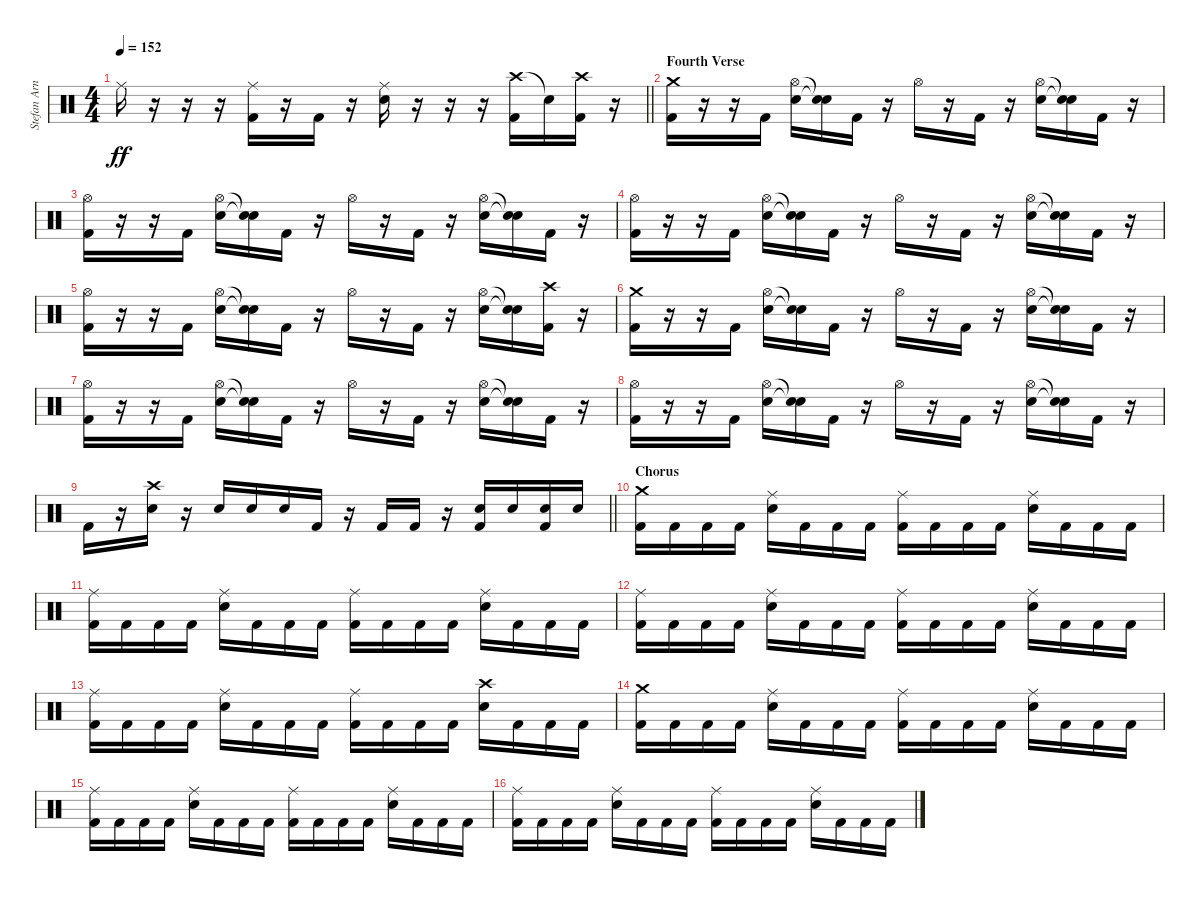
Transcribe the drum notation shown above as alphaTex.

\track ("Stefan Arnold" "Stefan Arn") {instrument percussion}
\staff {score}
\articulation defaults
\ts (4 4)
\tempo 152
\clef neutral
\barLineRight lightlight
\ks c "Ride (middle)".16{dy ff}
r.16 r.16 r.16 ("Ride (middle)" "Kick (hit) 2").16 r.16 "Kick (hit) 2".16 r.16 ("Ride (middle)" "Electric Snare (hit)").16 r.16 r.16 r.16 ("Crash high (hit)" "Kick (hit) 2").16 "Snare (hit)"{t}.16 ("Crash high (hit)" "Kick (hit) 2").16 r.16 |
\section ("" "Fourth Verse")
("Crash medium (hit)" "Kick (hit) 2").16 r.16 r.16 "Kick (hit) 2".16 ("Hi-Hat (open)" "Electric Snare (hit)").16 ("Snare (hit)"{t} "Electric Snare (hit)"{t}).16 "Kick (hit) 2".16 r.16 "Hi-Hat (open)".16 r.16 "Kick (hit) 2".16 r.16 ("Hi-Hat (open)" "Electric Snare (hit)").16 ("Snare (hit)"{t} "Electric Snare (hit)"{t}).16 "Kick (hit) 2".16 r.16 |
("Hi-Hat (open)" "Kick (hit) 2").16 r.16 r.16 "Kick (hit) 2".16 ("Hi-Hat (open)" "Electric Snare (hit)").16 ("Snare (hit)"{t} "Electric Snare (hit)"{t}).16 "Kick (hit) 2".16 r.16 "Hi-Hat (open)".16 r.16 "Kick (hit) 2".16 r.16 ("Hi-Hat (open)" "Electric Snare (hit)").16 ("Snare (hit)"{t} "Electric Snare (hit)"{t}).16 "Kick (hit) 2".16 r.16 |
("Hi-Hat (open)" "Kick (hit) 2").16 r.16 r.16 "Kick (hit) 2".16 ("Hi-Hat (open)" "Electric Snare (hit)").16 ("Snare (hit)"{t} "Electric Snare (hit)"{t}).16 "Kick (hit) 2".16 r.16 "Hi-Hat (open)".16 r.16 "Kick (hit) 2".16 r.16 ("Hi-Hat (open)" "Electric Snare (hit)").16 ("Snare (hit)"{t} "Electric Snare (hit)"{t}).16 "Kick (hit) 2".16 r.16 |
("Hi-Hat (open)" "Kick (hit) 2").16 r.16 r.16 "Kick (hit) 2".16 ("Hi-Hat (open)" "Electric Snare (hit)").16 ("Snare (hit)"{t} "Electric Snare (hit)"{t}).16 "Kick (hit) 2".16 r.16 "Hi-Hat (open)".16 r.16 "Kick (hit) 2".16 r.16 ("Hi-Hat (open)" "Electric Snare (hit)").16 ("Snare (hit)"{t} "Electric Snare (hit)"{t}).16 ("Crash high (hit)" "Kick (hit) 2").16 r.16 |
("Crash medium (hit)" "Kick (hit) 2").16 r.16 r.16 "Kick (hit) 2".16 ("Hi-Hat (open)" "Electric Snare (hit)").16 ("Snare (hit)"{t} "Electric Snare (hit)"{t}).16 "Kick (hit) 2".16 r.16 "Hi-Hat (open)".16 r.16 "Kick (hit) 2".16 r.16 ("Hi-Hat (open)" "Electric Snare (hit)").16 ("Snare (hit)"{t} "Electric Snare (hit)"{t}).16 "Kick (hit) 2".16 r.16 |
("Hi-Hat (open)" "Kick (hit) 2").16 r.16 r.16 "Kick (hit) 2".16 ("Hi-Hat (open)" "Electric Snare (hit)").16 ("Snare (hit)"{t} "Electric Snare (hit)"{t}).16 "Kick (hit) 2".16 r.16 "Hi-Hat (open)".16 r.16 "Kick (hit) 2".16 r.16 ("Hi-Hat (open)" "Electric Snare (hit)").16 ("Snare (hit)"{t} "Electric Snare (hit)"{t}).16 "Kick (hit) 2".16 r.16 |
("Hi-Hat (open)" "Kick (hit) 2").16 r.16 r.16 "Kick (hit) 2".16 ("Hi-Hat (open)" "Electric Snare (hit)").16 ("Snare (hit)"{t} "Electric Snare (hit)"{t}).16 "Kick (hit) 2".16 r.16 "Hi-Hat (open)".16 r.16 "Kick (hit) 2".16 r.16 ("Hi-Hat (open)" "Electric Snare (hit)").16 ("Snare (hit)"{t} "Electric Snare (hit)"{t}).16 "Kick (hit) 2".16 r.16 |
\barLineRight lightlight "Kick (hit) 2".16
r.16 ("Crash high (hit)" "Electric Snare (hit)").16 r.16 "Electric Snare (hit)".16 "Electric Snare (hit)".16 "Electric Snare (hit)".16 "Kick (hit) 2".16 r.16 "Kick (hit) 2".16 "Kick (hit) 2".16 r.16 ("Electric Snare (hit)" "Kick (hit) 2").16 "Electric Snare (hit)".16 ("Electric Snare (hit)" "Kick (hit) 2").16 "Electric Snare (hit)".16 |
\section ("" "Chorus")
("Crash medium (hit)" "Kick (hit) 2").16 "Kick (hit) 2".16 "Kick (hit) 2".16 "Kick (hit) 2".16 ("Ride (middle)" "Electric Snare (hit)").16 "Kick (hit) 2".16 "Kick (hit) 2".16 "Kick (hit) 2".16 ("Ride (middle)" "Kick (hit) 2").16 "Kick (hit) 2".16 "Kick (hit) 2".16 "Kick (hit) 2".16 ("Ride (middle)" "Electric Snare (hit)").16 "Kick (hit) 2".16 "Kick (hit) 2".16 "Kick (hit) 2".16 |
("Ride (middle)" "Kick (hit) 2").16 "Kick (hit) 2".16 "Kick (hit) 2".16 "Kick (hit) 2".16 ("Ride (middle)" "Electric Snare (hit)").16 "Kick (hit) 2".16 "Kick (hit) 2".16 "Kick (hit) 2".16 ("Ride (middle)" "Kick (hit) 2").16 "Kick (hit) 2".16 "Kick (hit) 2".16 "Kick (hit) 2".16 ("Ride (middle)" "Electric Snare (hit)").16 "Kick (hit) 2".16 "Kick (hit) 2".16 "Kick (hit) 2".16 |
("Ride (middle)" "Kick (hit) 2").16 "Kick (hit) 2".16 "Kick (hit) 2".16 "Kick (hit) 2".16 ("Ride (middle)" "Electric Snare (hit)").16 "Kick (hit) 2".16 "Kick (hit) 2".16 "Kick (hit) 2".16 ("Ride (middle)" "Kick (hit) 2").16 "Kick (hit) 2".16 "Kick (hit) 2".16 "Kick (hit) 2".16 ("Ride (middle)" "Electric Snare (hit)").16 "Kick (hit) 2".16 "Kick (hit) 2".16 "Kick (hit) 2".16 |
("Ride (middle)" "Kick (hit) 2").16 "Kick (hit) 2".16 "Kick (hit) 2".16 "Kick (hit) 2".16 ("Ride (middle)" "Electric Snare (hit)").16 "Kick (hit) 2".16 "Kick (hit) 2".16 "Kick (hit) 2".16 ("Ride (middle)" "Kick (hit) 2").16 "Kick (hit) 2".16 "Kick (hit) 2".16 "Kick (hit) 2".16 ("Crash high (hit)" "Electric Snare (hit)").16 "Kick (hit) 2".16 "Kick (hit) 2".16 "Kick (hit) 2".16 |
("Crash medium (hit)" "Kick (hit) 2").16 "Kick (hit) 2".16 "Kick (hit) 2".16 "Kick (hit) 2".16 ("Ride (middle)" "Electric Snare (hit)").16 "Kick (hit) 2".16 "Kick (hit) 2".16 "Kick (hit) 2".16 ("Ride (middle)" "Kick (hit) 2").16 "Kick (hit) 2".16 "Kick (hit) 2".16 "Kick (hit) 2".16 ("Ride (middle)" "Electric Snare (hit)").16 "Kick (hit) 2".16 "Kick (hit) 2".16 "Kick (hit) 2".16 |
("Ride (middle)" "Kick (hit) 2").16 "Kick (hit) 2".16 "Kick (hit) 2".16 "Kick (hit) 2".16 ("Ride (middle)" "Electric Snare (hit)").16 "Kick (hit) 2".16 "Kick (hit) 2".16 "Kick (hit) 2".16 ("Ride (middle)" "Kick (hit) 2").16 "Kick (hit) 2".16 "Kick (hit) 2".16 "Kick (hit) 2".16 ("Ride (middle)" "Electric Snare (hit)").16 "Kick (hit) 2".16 "Kick (hit) 2".16 "Kick (hit) 2".16 |
("Ride (middle)" "Kick (hit) 2").16 "Kick (hit) 2".16 "Kick (hit) 2".16 "Kick (hit) 2".16 ("Ride (middle)" "Electric Snare (hit)").16 "Kick (hit) 2".16 "Kick (hit) 2".16 "Kick (hit) 2".16 ("Ride (middle)" "Kick (hit) 2").16 "Kick (hit) 2".16 "Kick (hit) 2".16 "Kick (hit) 2".16 ("Ride (middle)" "Electric Snare (hit)").16 "Kick (hit) 2".16 "Kick (hit) 2".16 "Kick (hit) 2".16
